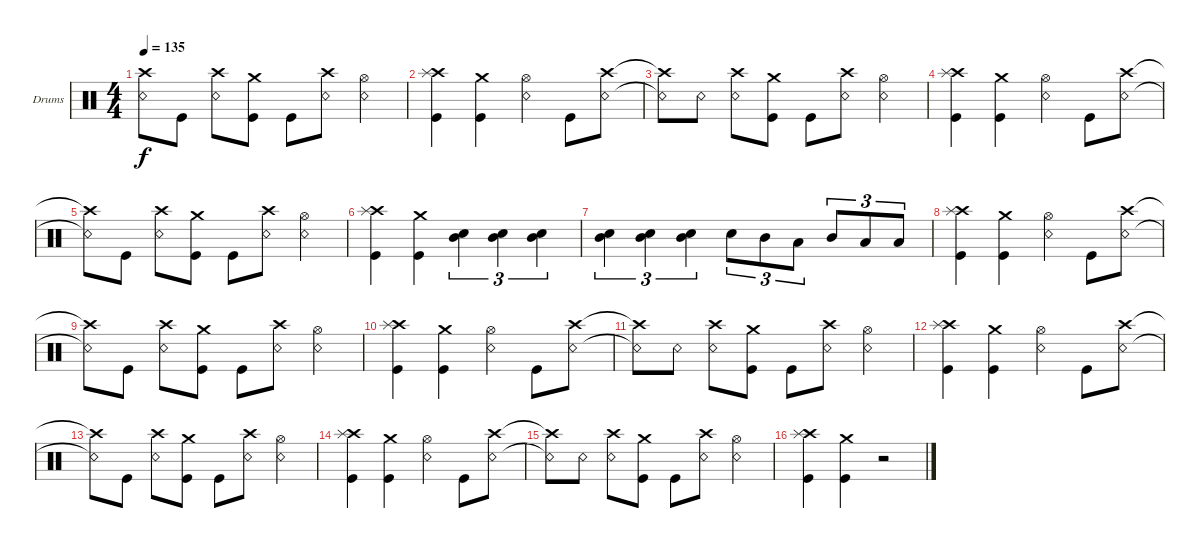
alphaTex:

\defaultSystemsLayout 4
\bracketExtendMode groupsimilarinstruments
\firstSystemTrackNameOrientation horizontal
\otherSystemsTrackNameOrientation horizontal
\track ("Drumkit" "Drums") {instrument percussion}
\staff {score}
\articulation defaults
\ts (4 4)
\tempo 135
\clef neutral
\ks c
("Crash high (hit)"{t} "Snare (rim shot)"{t}).8{dy f} "Kick (hit)".8 ("Crash high (hit)" "Snare (rim shot)").8 ("Kick (hit)" "Crash medium (hit)").8 "Kick (hit)".8 ("Crash high (hit)" "Snare (rim shot)").8 ("Snare (rim shot)" "Hi-Hat (open)").4 |
("Kick (hit)" "Crash high (hit)" "Splash (hit)").4 ("Crash medium (hit)" "Kick (hit)").4 ("Snare (rim shot)" "Hi-Hat (open)").4 "Kick (hit)".8 ("Crash high (hit)" "Snare (rim shot)").8 |
("Crash high (hit)"{t} "Snare (rim shot)"{t}).8 "Snare (rim shot)".8 ("Crash high (hit)" "Snare (rim shot)").8 ("Kick (hit)" "Crash medium (hit)").8 "Kick (hit)".8 ("Crash high (hit)" "Snare (rim shot)").8 ("Snare (rim shot)" "Hi-Hat (open)").4 |
("Kick (hit)" "Crash high (hit)" "Splash (hit)").4 ("Crash medium (hit)" "Kick (hit)").4 ("Snare (rim shot)" "Hi-Hat (open)").4 "Kick (hit)".8 ("Crash high (hit)" "Snare (rim shot)").8 |
("Crash high (hit)"{t} "Snare (rim shot)"{t}).8 "Kick (hit)".8 ("Crash high (hit)" "Snare (rim shot)").8 ("Kick (hit)" "Crash medium (hit)").8 "Kick (hit)".8 ("Crash high (hit)" "Snare (rim shot)").8 ("Snare (rim shot)" "Hi-Hat (open)").4 |
("Kick (hit)" "Crash high (hit)" "Splash (hit)").4 ("Crash medium (hit)" "Kick (hit)").4 ("Mid Tom (hit)" "Snare (hit) 2").4{tu (3 2)} ("Mid Tom (hit)" "Snare (hit) 2").4{tu (3 2)} ("Mid Tom (hit)" "Snare (hit) 2").4{tu (3 2)} |
("Mid Tom (hit)" "Snare (hit) 2").4{tu (3 2)} ("Mid Tom (hit)" "Snare (hit) 2").4{tu (3 2)} ("Mid Tom (hit)" "Snare (hit) 2").4{tu (3 2)} "Snare (hit) 2".8{tu (3 2)} "Mid Tom (hit)".8{tu (3 2)} "Low Tom (hit)".8{tu (3 2)} "Mid Tom (hit)".8{tu (3 2)} "Low Tom (hit)".8{tu (3 2)} "Low Tom (hit)".8{tu (3 2)} |
("Kick (hit)" "Crash high (hit)" "Splash (hit)").4 ("Crash medium (hit)" "Kick (hit)").4 ("Snare (rim shot)" "Hi-Hat (open)").4 "Kick (hit)".8 ("Crash high (hit)" "Snare (rim shot)").8 |
("Crash high (hit)"{t} "Snare (rim shot)"{t}).8 "Kick (hit)".8 ("Crash high (hit)" "Snare (rim shot)").8 ("Kick (hit)" "Crash medium (hit)").8 "Kick (hit)".8 ("Crash high (hit)" "Snare (rim shot)").8 ("Snare (rim shot)" "Hi-Hat (open)").4 |
("Kick (hit)" "Crash high (hit)" "Splash (hit)").4 ("Crash medium (hit)" "Kick (hit)").4 ("Snare (rim shot)" "Hi-Hat (open)").4 "Kick (hit)".8 ("Crash high (hit)" "Snare (rim shot)").8 |
("Crash high (hit)"{t} "Snare (rim shot)"{t}).8 "Snare (rim shot)".8 ("Crash high (hit)" "Snare (rim shot)").8 ("Kick (hit)" "Crash medium (hit)").8 "Kick (hit)".8 ("Crash high (hit)" "Snare (rim shot)").8 ("Snare (rim shot)" "Hi-Hat (open)").4 |
("Kick (hit)" "Crash high (hit)" "Splash (hit)").4 ("Crash medium (hit)" "Kick (hit)").4 ("Snare (rim shot)" "Hi-Hat (open)").4 "Kick (hit)".8 ("Crash high (hit)" "Snare (rim shot)").8 |
("Crash high (hit)"{t} "Snare (rim shot)"{t}).8 "Kick (hit)".8 ("Crash high (hit)" "Snare (rim shot)").8 ("Kick (hit)" "Crash medium (hit)").8 "Kick (hit)".8 ("Crash high (hit)" "Snare (rim shot)").8 ("Snare (rim shot)" "Hi-Hat (open)").4 |
("Kick (hit)" "Crash high (hit)" "Splash (hit)").4 ("Crash medium (hit)" "Kick (hit)").4 ("Snare (rim shot)" "Hi-Hat (open)").4 "Kick (hit)".8 ("Crash high (hit)" "Snare (rim shot)").8 |
("Crash high (hit)"{t} "Snare (rim shot)"{t}).8 "Snare (rim shot)".8 ("Crash high (hit)" "Snare (rim shot)").8 ("Kick (hit)" "Crash medium (hit)").8 "Kick (hit)".8 ("Crash high (hit)" "Snare (rim shot)").8 ("Snare (rim shot)" "Hi-Hat (open)").4 |
("Kick (hit)" "Crash high (hit)" "Splash (hit)").4 ("Crash medium (hit)" "Kick (hit)").4 r.2
